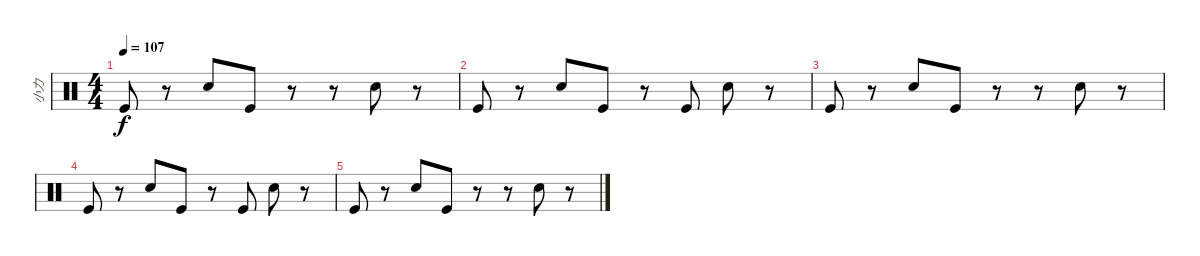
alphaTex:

\track ("小力" "小力") {instrument percussion}
\staff {score}
\articulation defaults
\ts (4 4)
\tempo 107
\clef neutral
\ks c "Kick (hit)".8{dy f}
r.8 "Electric Snare (hit)".8 "Kick (hit)".8 r.8 r.8 "Electric Snare (hit)".8 r.8 |
"Kick (hit)".8 r.8 "Electric Snare (hit)".8 "Kick (hit)".8 r.8 "Kick (hit)".8 "Electric Snare (hit)".8 r.8 |
"Kick (hit)".8 r.8 "Electric Snare (hit)".8 "Kick (hit)".8 r.8 r.8 "Electric Snare (hit)".8 r.8 |
"Kick (hit)".8 r.8 "Electric Snare (hit)".8 "Kick (hit)".8 r.8 "Kick (hit)".8 "Electric Snare (hit)".8 r.8 |
"Kick (hit)".8 r.8 "Electric Snare (hit)".8 "Kick (hit)".8 r.8 r.8 "Electric Snare (hit)".8 r.8
